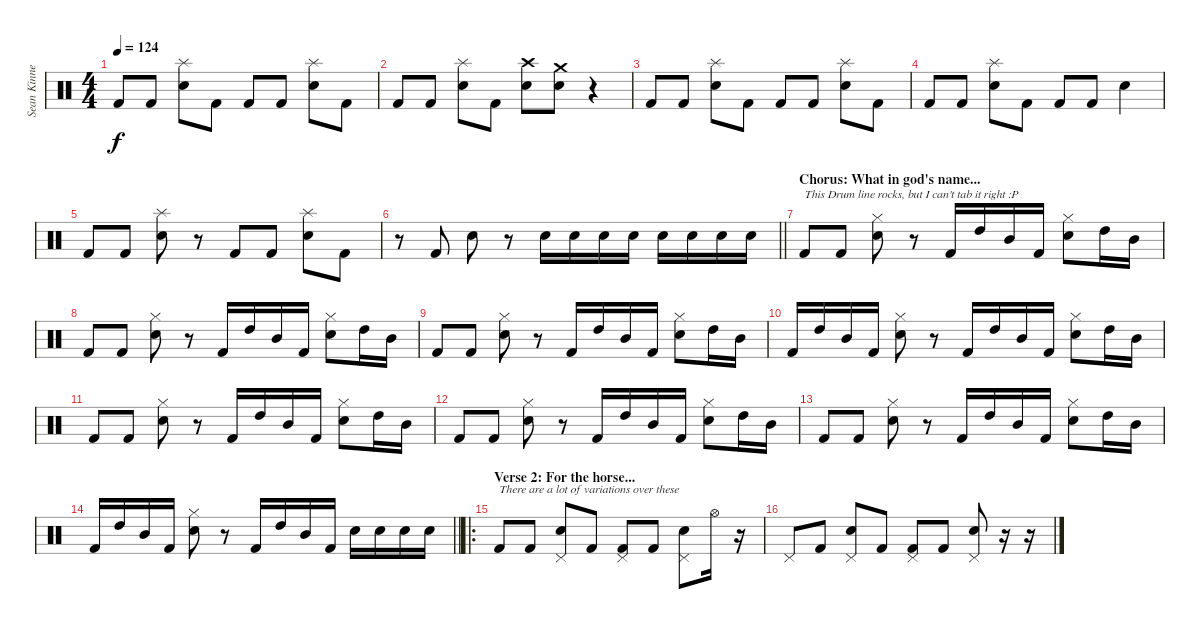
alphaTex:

\track ("Sean Kinney" "Sean Kinne") {instrument percussion}
\staff {score}
\articulation defaults
\ts (4 4)
\tempo 124
\clef neutral
\ks c "Kick (hit) 2".8{dy f} "Kick (hit) 2".8
("Splash (hit)" "Snare (hit) 2").8 "Kick (hit) 2".8 "Kick (hit) 2".8 "Kick (hit) 2".8 ("Splash (hit)" "Snare (hit) 2").8 "Kick (hit) 2".8 |
"Kick (hit) 2".8 "Kick (hit) 2".8 ("Splash (hit)" "Snare (hit) 2").8 "Kick (hit) 2".8 ("Crash high (hit)" "Snare (hit) 2").8 ("Crash medium (hit)" "Snare (hit) 2").8 r.4 |
"Kick (hit) 2".8 "Kick (hit) 2".8 ("Splash (hit)" "Snare (hit) 2").8 "Kick (hit) 2".8 "Kick (hit) 2".8 "Kick (hit) 2".8 ("Splash (hit)" "Snare (hit) 2").8 "Kick (hit) 2".8 |
"Kick (hit) 2".8 "Kick (hit) 2".8 ("Splash (hit)" "Snare (hit) 2").8 "Kick (hit) 2".8 "Kick (hit) 2".8 "Kick (hit) 2".8 "Snare (hit) 2".4 |
"Kick (hit) 2".8 "Kick (hit) 2".8 ("Splash (hit)" "Snare (hit) 2").8 r.8 "Kick (hit) 2".8 "Kick (hit) 2".8 ("Splash (hit)" "Snare (hit) 2").8 "Kick (hit) 2".8 |
\barLineRight lightlight
r.8 "Kick (hit) 2".8 "Snare (hit) 2".8 r.8 "Snare (hit) 2".16 "Snare (hit) 2".16 "Snare (hit) 2".16 "Snare (hit) 2".16 "Snare (hit) 2".16 "Snare (hit) 2".16 "Snare (hit) 2".16 "Snare (hit) 2".16 |
\section ("" "Chorus: What in god's name...")
"Kick (hit) 2".8{txt "This Drum line rocks, but I can't tab it right :P"} "Kick (hit) 2".8 ("Hi-Hat (closed)" "Snare (hit) 2").8 r.8 "Kick (hit) 2".16 "High Tom (hit)".16 "Mid Tom (hit)".16 "Kick (hit) 2".16 ("Hi-Hat (closed)" "Snare (hit) 2").8 "High Tom (hit)".16 "Mid Tom (hit)".16 |
"Kick (hit) 2".8 "Kick (hit) 2".8 ("Hi-Hat (closed)" "Snare (hit) 2").8 r.8 "Kick (hit) 2".16 "High Tom (hit)".16 "Mid Tom (hit)".16 "Kick (hit) 2".16 ("Hi-Hat (closed)" "Snare (hit) 2").8 "High Tom (hit)".16 "Mid Tom (hit)".16 |
"Kick (hit) 2".8 "Kick (hit) 2".8 ("Hi-Hat (closed)" "Snare (hit) 2").8 r.8 "Kick (hit) 2".16 "High Tom (hit)".16 "Mid Tom (hit)".16 "Kick (hit) 2".16 ("Hi-Hat (closed)" "Snare (hit) 2").8 "High Tom (hit)".16 "Mid Tom (hit)".16 |
"Kick (hit) 2".16 "High Tom (hit)".16 "Mid Tom (hit)".16 "Kick (hit) 2".16 ("Hi-Hat (closed)" "Snare (hit) 2").8 r.8 "Kick (hit) 2".16 "High Tom (hit)".16 "Mid Tom (hit)".16 "Kick (hit) 2".16 ("Hi-Hat (closed)" "Snare (hit) 2").8 "High Tom (hit)".16 "Mid Tom (hit)".16 |
"Kick (hit) 2".8 "Kick (hit) 2".8 ("Hi-Hat (closed)" "Snare (hit) 2").8 r.8 "Kick (hit) 2".16 "High Tom (hit)".16 "Mid Tom (hit)".16 "Kick (hit) 2".16 ("Hi-Hat (closed)" "Snare (hit) 2").8 "High Tom (hit)".16 "Mid Tom (hit)".16 |
"Kick (hit) 2".8 "Kick (hit) 2".8 ("Hi-Hat (closed)" "Snare (hit) 2").8 r.8 "Kick (hit) 2".16 "High Tom (hit)".16 "Mid Tom (hit)".16 "Kick (hit) 2".16 ("Hi-Hat (closed)" "Snare (hit) 2").8 "High Tom (hit)".16 "Mid Tom (hit)".16 |
"Kick (hit) 2".8 "Kick (hit) 2".8 ("Hi-Hat (closed)" "Snare (hit) 2").8 r.8 "Kick (hit) 2".16 "High Tom (hit)".16 "Mid Tom (hit)".16 "Kick (hit) 2".16 ("Hi-Hat (closed)" "Snare (hit) 2").8 "High Tom (hit)".16 "Mid Tom (hit)".16 |
\barLineRight lightlight "Kick (hit) 2".16 "High Tom (hit)".16 "Mid Tom (hit)".16 "Kick (hit) 2".16
("Hi-Hat (closed)" "Snare (hit) 2").8 r.8 "Kick (hit) 2".16 "High Tom (hit)".16 "Mid Tom (hit)".16 "Kick (hit) 2".16 "Snare (hit) 2".16 "Snare (hit) 2".16 "Snare (hit) 2".16 "Snare (hit) 2".16 |
\ro
\section ("" "Verse 2: For the horse...")
"Kick (hit) 2".8{txt "There are a lot of variations over these "} "Kick (hit) 2".8 ("Pedal Hi-Hat (hit)" "Snare (hit) 2").8 "Kick (hit) 2".8 ("Pedal Hi-Hat (hit)" "Kick (hit) 2").8 "Kick (hit) 2".8 ("Pedal Hi-Hat (hit)" "Snare (hit) 2").8 "Hi-Hat (open)".16 r.16 |
"Pedal Hi-Hat (hit)".8 "Kick (hit) 2".8 ("Pedal Hi-Hat (hit)" "Snare (hit) 2").8 "Kick (hit) 2".8 ("Pedal Hi-Hat (hit)" "Kick (hit) 2").8 "Kick (hit) 2".8 ("Pedal Hi-Hat (hit)" "Snare (hit) 2").8 r.16 r.16
